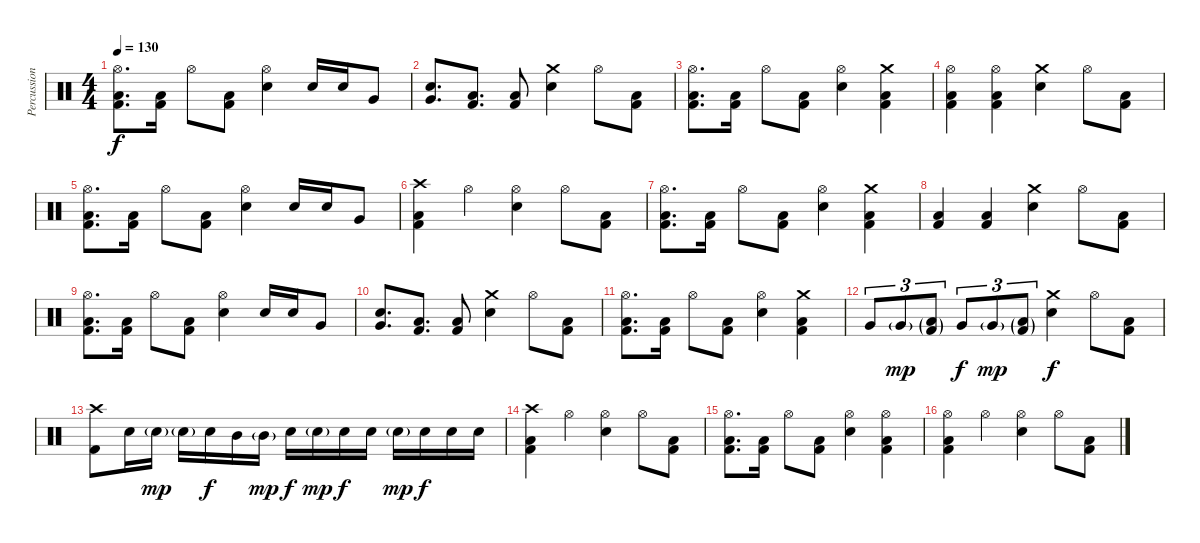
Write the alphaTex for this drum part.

\track ("Percussion" "Percussion") {instrument percussion}
\staff {score}
\articulation defaults
\ts (4 4)
\tempo 130
\clef neutral
\ks c
("Hi-Hat (open)" "Low Floor Tom (hit)" "Kick (hit) 2").8{d dy f} ("Low Floor Tom (hit)" "Kick (hit) 2").16 "Hi-Hat (open)".8 ("Low Floor Tom (hit)" "Kick (hit) 2").8 ("Hi-Hat (open)" "Electric Snare (hit)").4 "Electric Snare (hit)".16 "Electric Snare (hit)".16 "Very Low Tom (hit)".8 |
("Very Low Tom (hit)" "Electric Snare (hit)").8{d} ("Low Floor Tom (hit)" "Kick (hit) 2").8{d} ("Low Floor Tom (hit)" "Kick (hit) 2").8 ("Crash medium (hit)" "Electric Snare (hit)").4 "Hi-Hat (open)".8 ("Low Floor Tom (hit)" "Kick (hit) 2").8 |
("Hi-Hat (open)" "Low Floor Tom (hit)" "Kick (hit) 2").8{d} ("Low Floor Tom (hit)" "Kick (hit) 2").16 "Hi-Hat (open)".8 ("Low Floor Tom (hit)" "Kick (hit) 2").8 ("Hi-Hat (open)" "Electric Snare (hit)").4 ("Crash medium (hit)" "Low Floor Tom (hit)" "Kick (hit) 2").4 |
("Hi-Hat (open)" "Low Floor Tom (hit)" "Kick (hit) 2").4 ("Hi-Hat (open)" "Low Floor Tom (hit)" "Kick (hit) 2").4 ("Crash medium (hit)" "Electric Snare (hit)").4 "Hi-Hat (open)".8 ("Low Floor Tom (hit)" "Kick (hit) 2").8 |
("Hi-Hat (open)" "Low Floor Tom (hit)" "Kick (hit) 2").8{d} ("Low Floor Tom (hit)" "Kick (hit) 2").16 "Hi-Hat (open)".8 ("Low Floor Tom (hit)" "Kick (hit) 2").8 ("Hi-Hat (open)" "Electric Snare (hit)").4 "Electric Snare (hit)".16 "Electric Snare (hit)".16 "Very Low Tom (hit)".8 |
("Crash high (hit)" "Low Floor Tom (hit)" "Kick (hit) 2").4 "Hi-Hat (open)".4 ("Hi-Hat (open)" "Electric Snare (hit)").4 "Hi-Hat (open)".8 ("Low Floor Tom (hit)" "Kick (hit) 2").8 |
("Hi-Hat (open)" "Low Floor Tom (hit)" "Kick (hit) 2").8{d} ("Low Floor Tom (hit)" "Kick (hit) 2").16 "Hi-Hat (open)".8 ("Low Floor Tom (hit)" "Kick (hit) 2").8 ("Hi-Hat (open)" "Electric Snare (hit)").4 ("Crash medium (hit)" "Low Floor Tom (hit)" "Kick (hit) 2").4 |
("Low Floor Tom (hit)" "Kick (hit) 2").4 ("Low Floor Tom (hit)" "Kick (hit) 2").4 ("Crash medium (hit)" "Electric Snare (hit)").4 "Hi-Hat (open)".8 ("Low Floor Tom (hit)" "Kick (hit) 2").8 |
("Hi-Hat (open)" "Low Floor Tom (hit)" "Kick (hit) 2").8{d} ("Low Floor Tom (hit)" "Kick (hit) 2").16 "Hi-Hat (open)".8 ("Low Floor Tom (hit)" "Kick (hit) 2").8 ("Hi-Hat (open)" "Electric Snare (hit)").4 "Electric Snare (hit)".16 "Electric Snare (hit)".16 "Very Low Tom (hit)".8 |
("Very Low Tom (hit)" "Electric Snare (hit)").8{d} ("Low Floor Tom (hit)" "Kick (hit) 2").8{d} ("Low Floor Tom (hit)" "Kick (hit) 2").8 ("Crash medium (hit)" "Electric Snare (hit)").4 "Hi-Hat (open)".8 ("Low Floor Tom (hit)" "Kick (hit) 2").8 |
("Hi-Hat (open)" "Low Floor Tom (hit)" "Kick (hit) 2").8{d} ("Low Floor Tom (hit)" "Kick (hit) 2").16 "Hi-Hat (open)".8 ("Low Floor Tom (hit)" "Kick (hit) 2").8 ("Hi-Hat (open)" "Electric Snare (hit)").4 ("Crash medium (hit)" "Low Floor Tom (hit)" "Kick (hit) 2").4 |
"Very Low Tom (hit)".8{tu (3 2)} "Very Low Tom (hit)"{g}.8{tu (3 2) dy mp} ("Low Floor Tom (hit)"{g} "Kick (hit) 2"{g}).8{tu (3 2)} "Very Low Tom (hit)".8{tu (3 2) dy f} "Very Low Tom (hit)"{g}.8{tu (3 2) dy mp} ("Low Floor Tom (hit)"{g} "Kick (hit) 2"{g}).8{tu (3 2)} ("Crash medium (hit)" "Electric Snare (hit)").4{dy f} "Hi-Hat (open)".8 ("Low Floor Tom (hit)" "Kick (hit) 2").8 |
("Crash high (hit)" "Kick (hit) 2").8 "Electric Snare (hit)".16 "Electric Snare (hit)"{g}.16{dy mp} "Electric Snare (hit)"{g}.16 "Electric Snare (hit)".16{dy f} "Mid Tom (hit)".16 "Mid Tom (hit)"{g}.16{dy mp} "Electric Snare (hit)".16{dy f} "Electric Snare (hit)"{g}.16{dy mp} "Electric Snare (hit)".16{dy f} "Electric Snare (hit)".16 "Electric Snare (hit)"{g}.16{dy mp} "Electric Snare (hit)".16{dy f} "Electric Snare (hit)".16 "Electric Snare (hit)".16 |
("Crash high (hit)" "Low Floor Tom (hit)" "Kick (hit) 2").4 "Hi-Hat (open)".4 ("Hi-Hat (open)" "Electric Snare (hit)").4 "Hi-Hat (open)".8 ("Low Floor Tom (hit)" "Kick (hit) 2").8 |
("Hi-Hat (open)" "Low Floor Tom (hit)" "Kick (hit) 2").8{d} ("Low Floor Tom (hit)" "Kick (hit) 2").16 "Hi-Hat (open)".8 ("Low Floor Tom (hit)" "Kick (hit) 2").8 ("Hi-Hat (open)" "Electric Snare (hit)").4 ("Hi-Hat (open)" "Low Floor Tom (hit)" "Kick (hit) 2").4 |
("Hi-Hat (open)" "Low Floor Tom (hit)" "Kick (hit) 2").4 "Hi-Hat (open)".4 ("Hi-Hat (open)" "Electric Snare (hit)").4 "Hi-Hat (open)".8 ("Low Floor Tom (hit)" "Kick (hit) 2").8
